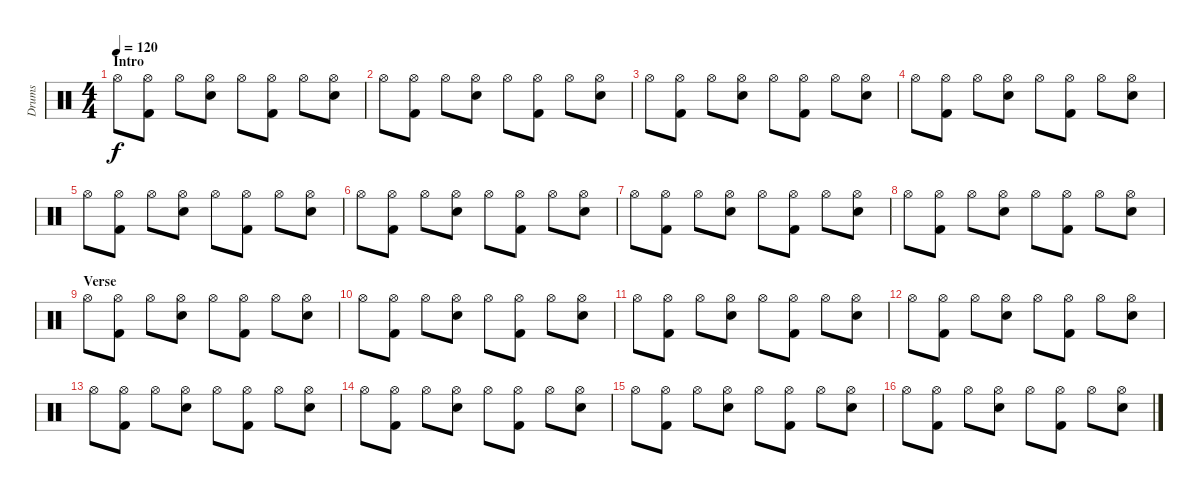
\track ("Drums" "Drums") {instrument percussion}
\staff {score}
\articulation defaults
\ts (4 4)
\section ("" "Intro")
\tempo 120
\clef neutral
\ks c "Hi-Hat (open)".8{dy f}
("Hi-Hat (open)" "Kick (hit) 2").8 "Hi-Hat (open)".8 ("Hi-Hat (open)" "Snare (hit) 2").8 "Hi-Hat (open)".8 ("Hi-Hat (open)" "Kick (hit) 2").8 "Hi-Hat (open)".8 ("Hi-Hat (open)" "Snare (hit) 2").8 |
"Hi-Hat (open)".8 ("Hi-Hat (open)" "Kick (hit) 2").8 "Hi-Hat (open)".8 ("Hi-Hat (open)" "Snare (hit) 2").8 "Hi-Hat (open)".8 ("Hi-Hat (open)" "Kick (hit) 2").8 "Hi-Hat (open)".8 ("Hi-Hat (open)" "Snare (hit) 2").8 |
"Hi-Hat (open)".8 ("Hi-Hat (open)" "Kick (hit) 2").8 "Hi-Hat (open)".8 ("Hi-Hat (open)" "Snare (hit) 2").8 "Hi-Hat (open)".8 ("Hi-Hat (open)" "Kick (hit) 2").8 "Hi-Hat (open)".8 ("Hi-Hat (open)" "Snare (hit) 2").8 |
"Hi-Hat (open)".8 ("Hi-Hat (open)" "Kick (hit) 2").8 "Hi-Hat (open)".8 ("Hi-Hat (open)" "Snare (hit) 2").8 "Hi-Hat (open)".8 ("Hi-Hat (open)" "Kick (hit) 2").8 "Hi-Hat (open)".8 ("Hi-Hat (open)" "Snare (hit) 2").8 |
"Hi-Hat (open)".8 ("Hi-Hat (open)" "Kick (hit) 2").8 "Hi-Hat (open)".8 ("Hi-Hat (open)" "Snare (hit) 2").8 "Hi-Hat (open)".8 ("Hi-Hat (open)" "Kick (hit) 2").8 "Hi-Hat (open)".8 ("Hi-Hat (open)" "Snare (hit) 2").8 |
"Hi-Hat (open)".8 ("Hi-Hat (open)" "Kick (hit) 2").8 "Hi-Hat (open)".8 ("Hi-Hat (open)" "Snare (hit) 2").8 "Hi-Hat (open)".8 ("Hi-Hat (open)" "Kick (hit) 2").8 "Hi-Hat (open)".8 ("Hi-Hat (open)" "Snare (hit) 2").8 |
"Hi-Hat (open)".8 ("Hi-Hat (open)" "Kick (hit) 2").8 "Hi-Hat (open)".8 ("Hi-Hat (open)" "Snare (hit) 2").8 "Hi-Hat (open)".8 ("Hi-Hat (open)" "Kick (hit) 2").8 "Hi-Hat (open)".8 ("Hi-Hat (open)" "Snare (hit) 2").8 |
"Hi-Hat (open)".8 ("Hi-Hat (open)" "Kick (hit) 2").8 "Hi-Hat (open)".8 ("Hi-Hat (open)" "Snare (hit) 2").8 "Hi-Hat (open)".8 ("Hi-Hat (open)" "Kick (hit) 2").8 "Hi-Hat (open)".8 ("Hi-Hat (open)" "Snare (hit) 2").8 |
\section ("" "Verse")
"Hi-Hat (open)".8 ("Hi-Hat (open)" "Kick (hit) 2").8 "Hi-Hat (open)".8 ("Hi-Hat (open)" "Snare (hit) 2").8 "Hi-Hat (open)".8 ("Hi-Hat (open)" "Kick (hit) 2").8 "Hi-Hat (open)".8 ("Hi-Hat (open)" "Snare (hit) 2").8 |
"Hi-Hat (open)".8 ("Hi-Hat (open)" "Kick (hit) 2").8 "Hi-Hat (open)".8 ("Hi-Hat (open)" "Snare (hit) 2").8 "Hi-Hat (open)".8 ("Hi-Hat (open)" "Kick (hit) 2").8 "Hi-Hat (open)".8 ("Hi-Hat (open)" "Snare (hit) 2").8 |
"Hi-Hat (open)".8 ("Hi-Hat (open)" "Kick (hit) 2").8 "Hi-Hat (open)".8 ("Hi-Hat (open)" "Snare (hit) 2").8 "Hi-Hat (open)".8 ("Hi-Hat (open)" "Kick (hit) 2").8 "Hi-Hat (open)".8 ("Hi-Hat (open)" "Snare (hit) 2").8 |
"Hi-Hat (open)".8 ("Hi-Hat (open)" "Kick (hit) 2").8 "Hi-Hat (open)".8 ("Hi-Hat (open)" "Snare (hit) 2").8 "Hi-Hat (open)".8 ("Hi-Hat (open)" "Kick (hit) 2").8 "Hi-Hat (open)".8 ("Hi-Hat (open)" "Snare (hit) 2").8 |
"Hi-Hat (open)".8 ("Hi-Hat (open)" "Kick (hit) 2").8 "Hi-Hat (open)".8 ("Hi-Hat (open)" "Snare (hit) 2").8 "Hi-Hat (open)".8 ("Hi-Hat (open)" "Kick (hit) 2").8 "Hi-Hat (open)".8 ("Hi-Hat (open)" "Snare (hit) 2").8 |
"Hi-Hat (open)".8 ("Hi-Hat (open)" "Kick (hit) 2").8 "Hi-Hat (open)".8 ("Hi-Hat (open)" "Snare (hit) 2").8 "Hi-Hat (open)".8 ("Hi-Hat (open)" "Kick (hit) 2").8 "Hi-Hat (open)".8 ("Hi-Hat (open)" "Snare (hit) 2").8 |
"Hi-Hat (open)".8 ("Hi-Hat (open)" "Kick (hit) 2").8 "Hi-Hat (open)".8 ("Hi-Hat (open)" "Snare (hit) 2").8 "Hi-Hat (open)".8 ("Hi-Hat (open)" "Kick (hit) 2").8 "Hi-Hat (open)".8 ("Hi-Hat (open)" "Snare (hit) 2").8 |
"Hi-Hat (open)".8 ("Hi-Hat (open)" "Kick (hit) 2").8 "Hi-Hat (open)".8 ("Hi-Hat (open)" "Snare (hit) 2").8 "Hi-Hat (open)".8 ("Hi-Hat (open)" "Kick (hit) 2").8 "Hi-Hat (open)".8 ("Hi-Hat (open)" "Snare (hit) 2").8
